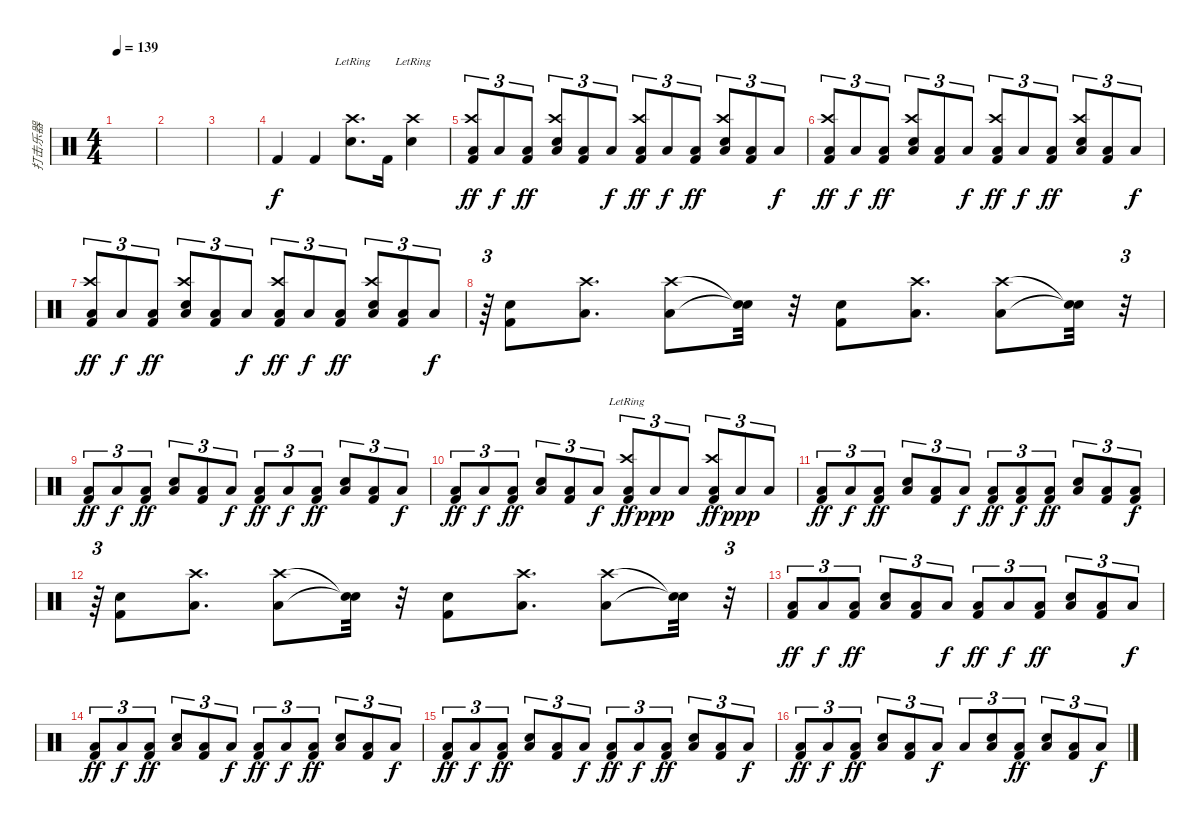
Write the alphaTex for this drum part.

\track ("打击乐器" "打击乐器") {instrument percussion}
\staff {score}
\articulation defaults
\ts (4 4)
\tempo 139
\clef neutral
\ks c
|
|
|
"Kick (hit) 2".4 "Kick (hit) 2".4 ("Snare (hit) 2"{lr} "Crash high (hit)").8{d} "Kick (hit) 2".16 ("Snare (hit) 2"{lr} "Crash high (hit)").4 |
("Kick (hit) 2" "Crash high (hit)" "Low Floor Tom (hit)").8{tu (3 2) dy ff} "Low Floor Tom (hit)".8{tu (3 2) dy f} ("Kick (hit) 2" "Low Floor Tom (hit)").8{tu (3 2) dy ff} ("Snare (hit) 2" "Crash high (hit)" "Low Floor Tom (hit)").8{tu (3 2)} ("Kick (hit) 2" "Low Floor Tom (hit)").8{tu (3 2)} "Low Floor Tom (hit)".8{tu (3 2) dy f} ("Kick (hit) 2" "Crash high (hit)" "Low Floor Tom (hit)").8{tu (3 2) dy ff} "Low Floor Tom (hit)".8{tu (3 2) dy f} ("Kick (hit) 2" "Low Floor Tom (hit)").8{tu (3 2) dy ff} ("Snare (hit) 2" "Crash high (hit)" "Low Floor Tom (hit)").8{tu (3 2)} ("Kick (hit) 2" "Low Floor Tom (hit)").8{tu (3 2)} "Low Floor Tom (hit)".8{tu (3 2) dy f} |
("Kick (hit) 2" "Crash high (hit)" "Low Floor Tom (hit)").8{tu (3 2) dy ff} "Low Floor Tom (hit)".8{tu (3 2) dy f} ("Kick (hit) 2" "Low Floor Tom (hit)").8{tu (3 2) dy ff} ("Snare (hit) 2" "Crash high (hit)" "Low Floor Tom (hit)").8{tu (3 2)} ("Kick (hit) 2" "Low Floor Tom (hit)").8{tu (3 2)} "Low Floor Tom (hit)".8{tu (3 2) dy f} ("Kick (hit) 2" "Crash high (hit)" "Low Floor Tom (hit)").8{tu (3 2) dy ff} "Low Floor Tom (hit)".8{tu (3 2) dy f} ("Kick (hit) 2" "Low Floor Tom (hit)").8{tu (3 2) dy ff} ("Snare (hit) 2" "Crash high (hit)" "Low Floor Tom (hit)").8{tu (3 2)} ("Kick (hit) 2" "Low Floor Tom (hit)").8{tu (3 2)} "Low Floor Tom (hit)".8{tu (3 2) dy f} |
("Kick (hit) 2" "Crash high (hit)" "Low Floor Tom (hit)").8{tu (3 2) dy ff} "Low Floor Tom (hit)".8{tu (3 2) dy f} ("Kick (hit) 2" "Low Floor Tom (hit)").8{tu (3 2) dy ff} ("Snare (hit) 2" "Crash high (hit)" "Low Floor Tom (hit)").8{tu (3 2)} ("Kick (hit) 2" "Low Floor Tom (hit)").8{tu (3 2)} "Low Floor Tom (hit)".8{tu (3 2) dy f} ("Kick (hit) 2" "Crash high (hit)" "Low Floor Tom (hit)").8{tu (3 2) dy ff} "Low Floor Tom (hit)".8{tu (3 2) dy f} ("Kick (hit) 2" "Low Floor Tom (hit)").8{tu (3 2) dy ff} ("Snare (hit) 2" "Crash high (hit)" "Low Floor Tom (hit)").8{tu (3 2)} ("Kick (hit) 2" "Low Floor Tom (hit)").8{tu (3 2)} "Low Floor Tom (hit)".8{tu (3 2) dy f} |
r.64{tu (3 2)} ("Snare (hit) 2" "Kick (hit) 2").8 ("Crash high (hit)" "Low Floor Tom (hit)").8{d} ("Crash high (hit)" "Low Floor Tom (hit)").8 ("Snare (hit)"{t} "Snare (hit)"{t}).32 r.32 ("Snare (hit) 2" "Kick (hit) 2").8 ("Crash high (hit)" "Low Floor Tom (hit)").8{d} ("Crash high (hit)" "Low Floor Tom (hit)").8 ("Snare (hit)"{t} "Snare (hit)"{t}).32 r.32{tu (3 2)} |
("Kick (hit) 2" "Low Floor Tom (hit)").8{tu (3 2) dy ff} "Low Floor Tom (hit)".8{tu (3 2) dy f} ("Kick (hit) 2" "Low Floor Tom (hit)").8{tu (3 2) dy ff} ("Snare (hit) 2" "Low Floor Tom (hit)").8{tu (3 2)} ("Kick (hit) 2" "Low Floor Tom (hit)").8{tu (3 2)} "Low Floor Tom (hit)".8{tu (3 2) dy f} ("Kick (hit) 2" "Low Floor Tom (hit)").8{tu (3 2) dy ff} "Low Floor Tom (hit)".8{tu (3 2) dy f} ("Kick (hit) 2" "Low Floor Tom (hit)").8{tu (3 2) dy ff} ("Snare (hit) 2" "Low Floor Tom (hit)").8{tu (3 2)} ("Kick (hit) 2" "Low Floor Tom (hit)").8{tu (3 2)} "Low Floor Tom (hit)".8{tu (3 2) dy f} |
("Kick (hit) 2" "Low Floor Tom (hit)").8{tu (3 2) dy ff} "Low Floor Tom (hit)".8{tu (3 2) dy f} ("Kick (hit) 2" "Low Floor Tom (hit)").8{tu (3 2) dy ff} ("Snare (hit) 2" "Low Floor Tom (hit)").8{tu (3 2)} ("Kick (hit) 2" "Low Floor Tom (hit)").8{tu (3 2)} "Low Floor Tom (hit)".8{tu (3 2) dy f} ("Crash high (hit)" "Kick (hit) 2"{lr} "Low Floor Tom (hit)").8{tu (3 2) dy ff} "Low Floor Tom (hit)".8{tu (3 2) dy ppp} "Low Floor Tom (hit)".8{tu (3 2)} ("Crash high (hit)" "Kick (hit) 2" "Low Floor Tom (hit)").8{tu (3 2) dy ff} "Low Floor Tom (hit)".8{tu (3 2) dy ppp} "Low Floor Tom (hit)".8{tu (3 2)} |
("Kick (hit) 2" "Low Floor Tom (hit)").8{tu (3 2) dy ff} "Low Floor Tom (hit)".8{tu (3 2) dy f} ("Kick (hit) 2" "Low Floor Tom (hit)").8{tu (3 2) dy ff} ("Snare (hit) 2" "Low Floor Tom (hit)").8{tu (3 2)} ("Kick (hit) 2" "Low Floor Tom (hit)").8{tu (3 2)} "Low Floor Tom (hit)".8{tu (3 2) dy f} ("Kick (hit) 2" "Low Floor Tom (hit)").8{tu (3 2) dy ff} ("Kick (hit) 2" "Low Floor Tom (hit)").8{tu (3 2) dy f} ("Kick (hit) 2" "Low Floor Tom (hit)").8{tu (3 2) dy ff} ("Snare (hit) 2" "Low Floor Tom (hit)").8{tu (3 2)} ("Kick (hit) 2" "Low Floor Tom (hit)").8{tu (3 2)} ("Kick (hit) 2" "Low Floor Tom (hit)").8{tu (3 2) dy f} |
r.64{tu (3 2)} ("Snare (hit) 2" "Kick (hit) 2").8 ("Crash high (hit)" "Low Floor Tom (hit)").8{d} ("Crash high (hit)" "Low Floor Tom (hit)").8 ("Snare (hit)"{t} "Snare (hit)"{t}).32 r.32 ("Snare (hit) 2" "Kick (hit) 2").8 ("Crash high (hit)" "Low Floor Tom (hit)").8{d} ("Crash high (hit)" "Low Floor Tom (hit)").8 ("Snare (hit)"{t} "Snare (hit)"{t}).32 r.32{tu (3 2)} |
("Kick (hit) 2" "Low Floor Tom (hit)").8{tu (3 2) dy ff} "Low Floor Tom (hit)".8{tu (3 2) dy f} ("Kick (hit) 2" "Low Floor Tom (hit)").8{tu (3 2) dy ff} ("Snare (hit) 2" "Low Floor Tom (hit)").8{tu (3 2)} ("Kick (hit) 2" "Low Floor Tom (hit)").8{tu (3 2)} "Low Floor Tom (hit)".8{tu (3 2) dy f} ("Kick (hit) 2" "Low Floor Tom (hit)").8{tu (3 2) dy ff} "Low Floor Tom (hit)".8{tu (3 2) dy f} ("Kick (hit) 2" "Low Floor Tom (hit)").8{tu (3 2) dy ff} ("Snare (hit) 2" "Low Floor Tom (hit)").8{tu (3 2)} ("Kick (hit) 2" "Low Floor Tom (hit)").8{tu (3 2)} "Low Floor Tom (hit)".8{tu (3 2) dy f} |
("Kick (hit) 2" "Low Floor Tom (hit)").8{tu (3 2) dy ff} "Low Floor Tom (hit)".8{tu (3 2) dy f} ("Kick (hit) 2" "Low Floor Tom (hit)").8{tu (3 2) dy ff} ("Snare (hit) 2" "Low Floor Tom (hit)").8{tu (3 2)} ("Kick (hit) 2" "Low Floor Tom (hit)").8{tu (3 2)} "Low Floor Tom (hit)".8{tu (3 2) dy f} ("Kick (hit) 2" "Low Floor Tom (hit)").8{tu (3 2) dy ff} "Low Floor Tom (hit)".8{tu (3 2) dy f} ("Kick (hit) 2" "Low Floor Tom (hit)").8{tu (3 2) dy ff} ("Snare (hit) 2" "Low Floor Tom (hit)").8{tu (3 2)} ("Kick (hit) 2" "Low Floor Tom (hit)").8{tu (3 2)} "Low Floor Tom (hit)".8{tu (3 2) dy f} |
("Kick (hit) 2" "Low Floor Tom (hit)").8{tu (3 2) dy ff} "Low Floor Tom (hit)".8{tu (3 2) dy f} ("Kick (hit) 2" "Low Floor Tom (hit)").8{tu (3 2) dy ff} ("Snare (hit) 2" "Low Floor Tom (hit)").8{tu (3 2)} ("Kick (hit) 2" "Low Floor Tom (hit)").8{tu (3 2)} "Low Floor Tom (hit)".8{tu (3 2) dy f} ("Kick (hit) 2" "Low Floor Tom (hit)").8{tu (3 2) dy ff} "Low Floor Tom (hit)".8{tu (3 2) dy f} ("Kick (hit) 2" "Low Floor Tom (hit)").8{tu (3 2) dy ff} ("Snare (hit) 2" "Low Floor Tom (hit)").8{tu (3 2)} ("Kick (hit) 2" "Low Floor Tom (hit)").8{tu (3 2)} "Low Floor Tom (hit)".8{tu (3 2) dy f} |
("Kick (hit) 2" "Low Floor Tom (hit)").8{tu (3 2) dy ff} "Low Floor Tom (hit)".8{tu (3 2) dy f} ("Kick (hit) 2" "Low Floor Tom (hit)").8{tu (3 2) dy ff} ("Snare (hit) 2" "Low Floor Tom (hit)").8{tu (3 2)} ("Kick (hit) 2" "Low Floor Tom (hit)").8{tu (3 2)} "Low Floor Tom (hit)".8{tu (3 2) dy f} "Low Floor Tom (hit)".8{tu (3 2)} ("Snare (hit) 2" "Low Floor Tom (hit)").8{tu (3 2)} ("Kick (hit) 2" "Low Floor Tom (hit)").8{tu (3 2) dy ff} ("Snare (hit) 2" "Low Floor Tom (hit)").8{tu (3 2)} ("Kick (hit) 2" "Low Floor Tom (hit)").8{tu (3 2)} "Low Floor Tom (hit)".8{tu (3 2) dy f}
